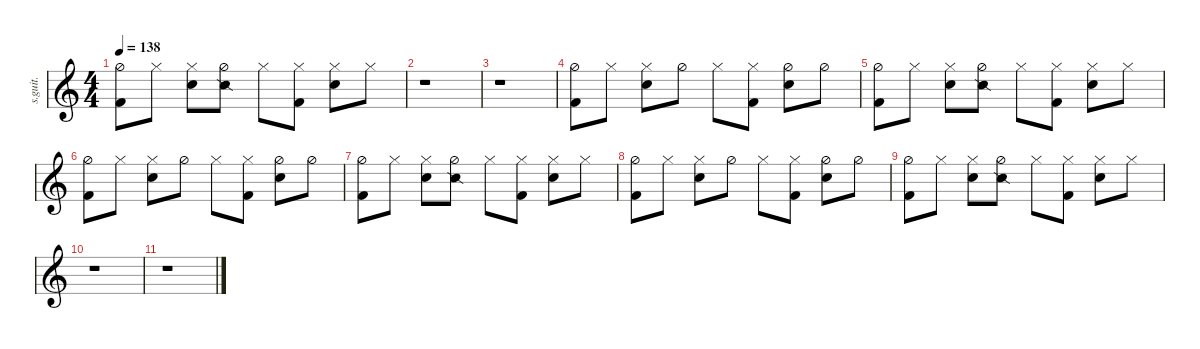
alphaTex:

\defaultSystemsLayout 4
\hideDynamics
\bracketExtendMode nobrackets
\track ("Russel Hobbs | Drums" "s.guit.") {instrument percussion}
\staff {score}
\articulation defaults
\ts (4 4)
\tempo 138
\clef g2
\ks c
("Hi-Hat (half)" "Kick (hit) 2").8{dy f} "Hi-Hat (closed)".8 ("Hi-Hat (closed)" "Snare (hit) 2").8 ("Hi-Hat (half)" "Snare (side stick) 2").8 "Hi-Hat (closed)".8 ("Hi-Hat (closed)" "Kick (hit) 2").8 ("Hi-Hat (closed)" "Snare (hit) 2").8 "Hi-Hat (closed)".8 |
r.1 |
r.1 |
("Hi-Hat (half)" "Kick (hit) 2").8 "Hi-Hat (closed)".8 ("Hi-Hat (closed)" "Snare (hit) 2").8 "Hi-Hat (half)".8 "Hi-Hat (closed)".8 ("Hi-Hat (closed)" "Kick (hit) 2").8 ("Hi-Hat (half)" "Snare (hit) 2").8 "Hi-Hat (half)".8 |
("Hi-Hat (half)" "Kick (hit) 2").8 "Hi-Hat (closed)".8 ("Hi-Hat (closed)" "Snare (hit) 2").8 ("Hi-Hat (half)" "Snare (side stick) 2").8 "Hi-Hat (closed)".8 ("Hi-Hat (closed)" "Kick (hit) 2").8 ("Hi-Hat (closed)" "Snare (hit) 2").8 "Hi-Hat (closed)".8 |
("Hi-Hat (half)" "Kick (hit) 2").8 "Hi-Hat (closed)".8 ("Hi-Hat (closed)" "Snare (hit) 2").8 "Hi-Hat (half)".8 "Hi-Hat (closed)".8 ("Hi-Hat (closed)" "Kick (hit) 2").8 ("Hi-Hat (half)" "Snare (hit) 2").8 "Hi-Hat (half)".8 |
("Hi-Hat (half)" "Kick (hit) 2").8 "Hi-Hat (closed)".8 ("Hi-Hat (closed)" "Snare (hit) 2").8 ("Hi-Hat (half)" "Snare (side stick) 2").8 "Hi-Hat (closed)".8 ("Hi-Hat (closed)" "Kick (hit) 2").8 ("Hi-Hat (closed)" "Snare (hit) 2").8 "Hi-Hat (closed)".8 |
("Hi-Hat (half)" "Kick (hit) 2").8 "Hi-Hat (closed)".8 ("Hi-Hat (closed)" "Snare (hit) 2").8 "Hi-Hat (half)".8 "Hi-Hat (closed)".8 ("Hi-Hat (closed)" "Kick (hit) 2").8 ("Hi-Hat (half)" "Snare (hit) 2").8 "Hi-Hat (half)".8 |
("Hi-Hat (half)" "Kick (hit) 2").8 "Hi-Hat (closed)".8 ("Hi-Hat (closed)" "Snare (hit) 2").8 ("Hi-Hat (half)" "Snare (side stick) 2").8 "Hi-Hat (closed)".8 ("Hi-Hat (closed)" "Kick (hit) 2").8 ("Hi-Hat (closed)" "Snare (hit) 2").8 "Hi-Hat (closed)".8 |
r.1 |
r.1
